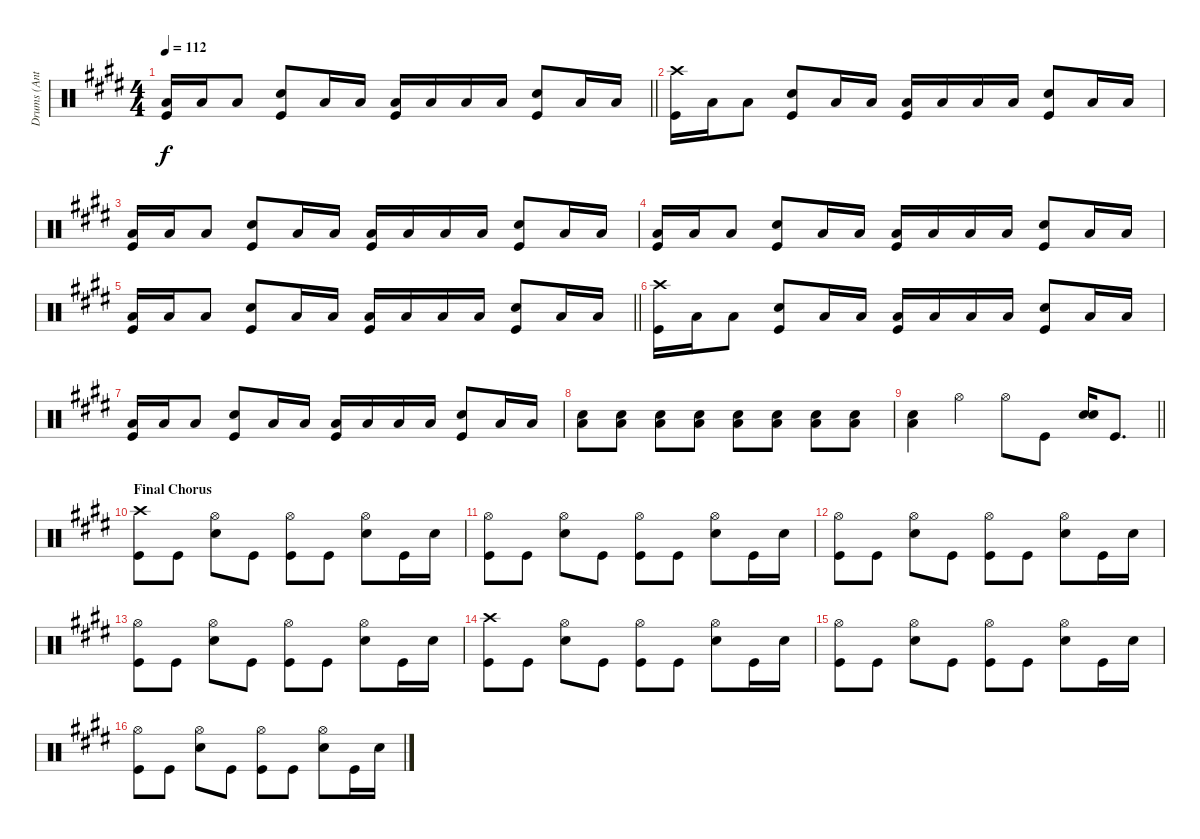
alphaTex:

\track ("Drums (Ant)" "Drums (Ant") {instrument percussion}
\staff {score}
\articulation defaults
\ts (4 4)
\tempo 112
\clef neutral
\barLineRight lightlight
\ks e
("Low Floor Tom (hit)" "Kick (hit)").16{dy f} "Low Tom (hit)".16 "Low Floor Tom (hit)".8 ("Snare (hit) 2" "Kick (hit)").8 "Low Floor Tom (hit)".16 "Low Tom (hit)".16 ("Low Floor Tom (hit)" "Kick (hit)").16 "Low Tom (hit)".16 "Low Floor Tom (hit)".16 "Low Floor Tom (hit)".16 ("Snare (hit) 2" "Kick (hit)").8 "Low Floor Tom (hit)".16 "Low Tom (hit)".16 |
("Crash high (hit)" "Kick (hit)").16 "Low Tom (hit)".16 "Low Floor Tom (hit)".8 ("Snare (hit) 2" "Kick (hit)").8 "Low Floor Tom (hit)".16 "Low Tom (hit)".16 ("Low Floor Tom (hit)" "Kick (hit)").16 "Low Tom (hit)".16 "Low Floor Tom (hit)".16 "Low Floor Tom (hit)".16 ("Snare (hit) 2" "Kick (hit)").8 "Low Floor Tom (hit)".16 "Low Tom (hit)".16 |
("Low Floor Tom (hit)" "Kick (hit)").16 "Low Tom (hit)".16 "Low Floor Tom (hit)".8 ("Snare (hit) 2" "Kick (hit)").8 "Low Floor Tom (hit)".16 "Low Tom (hit)".16 ("Low Floor Tom (hit)" "Kick (hit)").16 "Low Tom (hit)".16 "Low Floor Tom (hit)".16 "Low Floor Tom (hit)".16 ("Snare (hit) 2" "Kick (hit)").8 "Low Floor Tom (hit)".16 "Low Tom (hit)".16 |
("Low Floor Tom (hit)" "Kick (hit)").16 "Low Tom (hit)".16 "Low Floor Tom (hit)".8 ("Snare (hit) 2" "Kick (hit)").8 "Low Floor Tom (hit)".16 "Low Tom (hit)".16 ("Low Floor Tom (hit)" "Kick (hit)").16 "Low Tom (hit)".16 "Low Floor Tom (hit)".16 "Low Floor Tom (hit)".16 ("Snare (hit) 2" "Kick (hit)").8 "Low Floor Tom (hit)".16 "Low Tom (hit)".16 |
\barLineRight lightlight
("Low Floor Tom (hit)" "Kick (hit)").16 "Low Tom (hit)".16 "Low Floor Tom (hit)".8 ("Snare (hit) 2" "Kick (hit)").8 "Low Floor Tom (hit)".16 "Low Tom (hit)".16 ("Low Floor Tom (hit)" "Kick (hit)").16 "Low Tom (hit)".16 "Low Floor Tom (hit)".16 "Low Floor Tom (hit)".16 ("Snare (hit) 2" "Kick (hit)").8 "Low Floor Tom (hit)".16 "Low Tom (hit)".16 |
("Crash high (hit)" "Kick (hit)").16 "Low Tom (hit)".16 "Low Floor Tom (hit)".8 ("Snare (hit) 2" "Kick (hit)").8 "Low Floor Tom (hit)".16 "Low Tom (hit)".16 ("Low Floor Tom (hit)" "Kick (hit)").16 "Low Tom (hit)".16 "Low Floor Tom (hit)".16 "Low Floor Tom (hit)".16 ("Snare (hit) 2" "Kick (hit)").8 "Low Floor Tom (hit)".16 "Low Tom (hit)".16 |
("Low Floor Tom (hit)" "Kick (hit)").16 "Low Tom (hit)".16 "Low Floor Tom (hit)".8 ("Snare (hit) 2" "Kick (hit)").8 "Low Floor Tom (hit)".16 "Low Tom (hit)".16 ("Low Floor Tom (hit)" "Kick (hit)").16 "Low Tom (hit)".16 "Low Floor Tom (hit)".16 "Low Floor Tom (hit)".16 ("Snare (hit) 2" "Kick (hit)").8 "Low Floor Tom (hit)".16 "Low Tom (hit)".16 |
("Low Floor Tom (hit)" "Snare (hit) 2").8 ("Low Floor Tom (hit)" "Snare (hit) 2").8 ("Low Floor Tom (hit)" "Snare (hit) 2").8 ("Low Floor Tom (hit)" "Snare (hit) 2").8 ("Low Floor Tom (hit)" "Snare (hit) 2").8 ("Low Floor Tom (hit)" "Snare (hit) 2").8 ("Low Floor Tom (hit)" "Snare (hit) 2").8 ("Low Floor Tom (hit)" "Snare (hit) 2").8 |
\barLineRight lightlight
("Low Floor Tom (hit)" "Snare (hit) 2").4 "Hi-Hat (open)".4 "Hi-Hat (open)".8 "Kick (hit)".8 ("Snare (hit) 2" "Snare (hit) 2").16 "Kick (hit)".8{d} |
\section ("" "Final Chorus")
("Crash high (hit)" "Kick (hit)").8 "Kick (hit)".8 ("Hi-Hat (open)" "Snare (hit) 2").8 "Kick (hit)".8 ("Hi-Hat (open)" "Kick (hit)").8 "Kick (hit)".8 ("Hi-Hat (open)" "Snare (hit) 2").8 "Kick (hit)".16 "Snare (hit) 2".16 |
("Hi-Hat (open)" "Kick (hit)").8 "Kick (hit)".8 ("Hi-Hat (open)" "Snare (hit) 2").8 "Kick (hit)".8 ("Hi-Hat (open)" "Kick (hit)").8 "Kick (hit)".8 ("Hi-Hat (open)" "Snare (hit) 2").8 "Kick (hit)".16 "Snare (hit) 2".16 |
("Hi-Hat (open)" "Kick (hit)").8 "Kick (hit)".8 ("Hi-Hat (open)" "Snare (hit) 2").8 "Kick (hit)".8 ("Hi-Hat (open)" "Kick (hit)").8 "Kick (hit)".8 ("Hi-Hat (open)" "Snare (hit) 2").8 "Kick (hit)".16 "Snare (hit) 2".16 |
("Hi-Hat (open)" "Kick (hit)").8 "Kick (hit)".8 ("Hi-Hat (open)" "Snare (hit) 2").8 "Kick (hit)".8 ("Hi-Hat (open)" "Kick (hit)").8 "Kick (hit)".8 ("Hi-Hat (open)" "Snare (hit) 2").8 "Kick (hit)".16 "Snare (hit) 2".16 |
("Crash high (hit)" "Kick (hit)").8 "Kick (hit)".8 ("Hi-Hat (open)" "Snare (hit) 2").8 "Kick (hit)".8 ("Hi-Hat (open)" "Kick (hit)").8 "Kick (hit)".8 ("Hi-Hat (open)" "Snare (hit) 2").8 "Kick (hit)".16 "Snare (hit) 2".16 |
("Hi-Hat (open)" "Kick (hit)").8 "Kick (hit)".8 ("Hi-Hat (open)" "Snare (hit) 2").8 "Kick (hit)".8 ("Hi-Hat (open)" "Kick (hit)").8 "Kick (hit)".8 ("Hi-Hat (open)" "Snare (hit) 2").8 "Kick (hit)".16 "Snare (hit) 2".16 |
("Hi-Hat (open)" "Kick (hit)").8 "Kick (hit)".8 ("Hi-Hat (open)" "Snare (hit) 2").8 "Kick (hit)".8 ("Hi-Hat (open)" "Kick (hit)").8 "Kick (hit)".8 ("Hi-Hat (open)" "Snare (hit) 2").8 "Kick (hit)".16 "Snare (hit) 2".16
